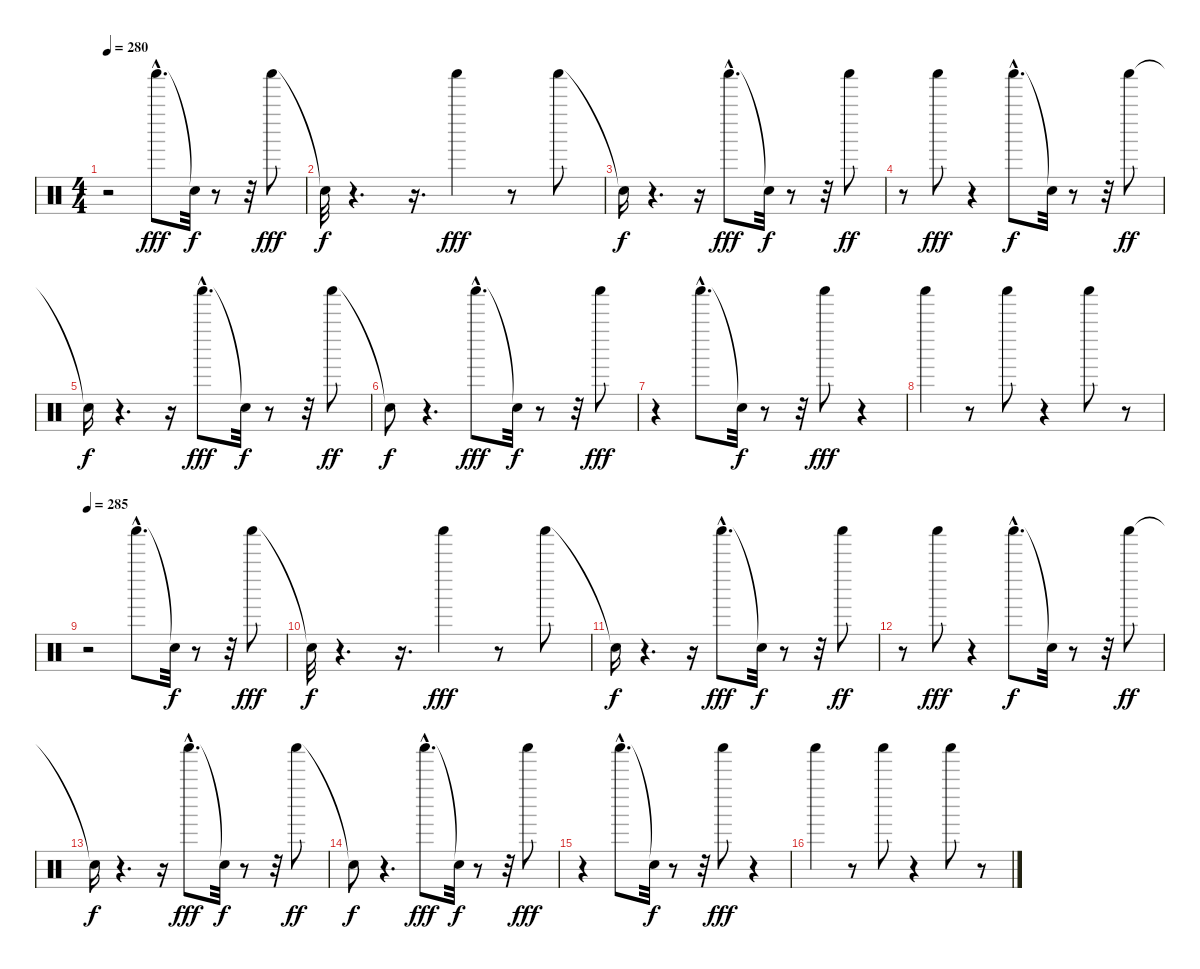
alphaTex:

\track "" {instrument percussion}
\staff {score}
\articulation defaults
\ts (4 4)
\tempo 280
\clef neutral
\ks c
r.2{dy fff} "Shaker (hit)"{hac}.8{d} "Snare (hit)"{t}.32{dy f} r.8 r.32 "Shaker (hit)".8{dy fff} |
"Snare (hit)"{t}.32{dy f} r.4{d} r.16{d} "Shaker (hit)".4{dy fff} r.8 "Shaker (hit)".8 |
"Snare (hit)"{t}.16{dy f} r.4{d} r.16 "Shaker (hit)"{hac}.8{d dy fff} "Snare (hit)"{t}.32{dy f} r.8 r.32 "Shaker (hit)".8{dy ff} |
r.8 "Shaker (hit)".8{dy fff} r.4 "Shaker (hit)"{hac}.8{d dy f} "Snare (hit)"{t}.32 r.8 r.32 "Shaker (hit)".8{dy ff} |
"Snare (hit)"{t}.16{dy f} r.4{d} r.16 "Shaker (hit)"{hac}.8{d dy fff} "Snare (hit)"{t}.32{dy f} r.8 r.32 "Shaker (hit)".8{dy ff} |
"Snare (hit)"{t}.8{dy f} r.4{d} "Shaker (hit)"{hac}.8{d dy fff} "Snare (hit)"{t}.32{dy f} r.8 r.32 "Shaker (hit)".8{dy fff} |
r.4 "Shaker (hit)"{hac}.8{d} "Snare (hit)"{t}.32{dy f} r.8 r.32 "Shaker (hit)".8{dy fff} r.4 |
"Shaker (hit)".4 r.8 "Shaker (hit)".8 r.4 "Shaker (hit)".8 r.8 |
\tempo 285
r.2 "Shaker (hit)"{hac}.8{d} "Snare (hit)"{t}.32{dy f} r.8 r.32 "Shaker (hit)".8{dy fff} |
"Snare (hit)"{t}.32{dy f} r.4{d} r.16{d} "Shaker (hit)".4{dy fff} r.8 "Shaker (hit)".8 |
"Snare (hit)"{t}.16{dy f} r.4{d} r.16 "Shaker (hit)"{hac}.8{d dy fff} "Snare (hit)"{t}.32{dy f} r.8 r.32 "Shaker (hit)".8{dy ff} |
r.8 "Shaker (hit)".8{dy fff} r.4 "Shaker (hit)"{hac}.8{d dy f} "Snare (hit)"{t}.32 r.8 r.32 "Shaker (hit)".8{dy ff} |
"Snare (hit)"{t}.16{dy f} r.4{d} r.16 "Shaker (hit)"{hac}.8{d dy fff} "Snare (hit)"{t}.32{dy f} r.8 r.32 "Shaker (hit)".8{dy ff} |
"Snare (hit)"{t}.8{dy f} r.4{d} "Shaker (hit)"{hac}.8{d dy fff} "Snare (hit)"{t}.32{dy f} r.8 r.32 "Shaker (hit)".8{dy fff} |
r.4 "Shaker (hit)"{hac}.8{d} "Snare (hit)"{t}.32{dy f} r.8 r.32 "Shaker (hit)".8{dy fff} r.4 |
"Shaker (hit)".4 r.8 "Shaker (hit)".8 r.4 "Shaker (hit)".8 r.8
